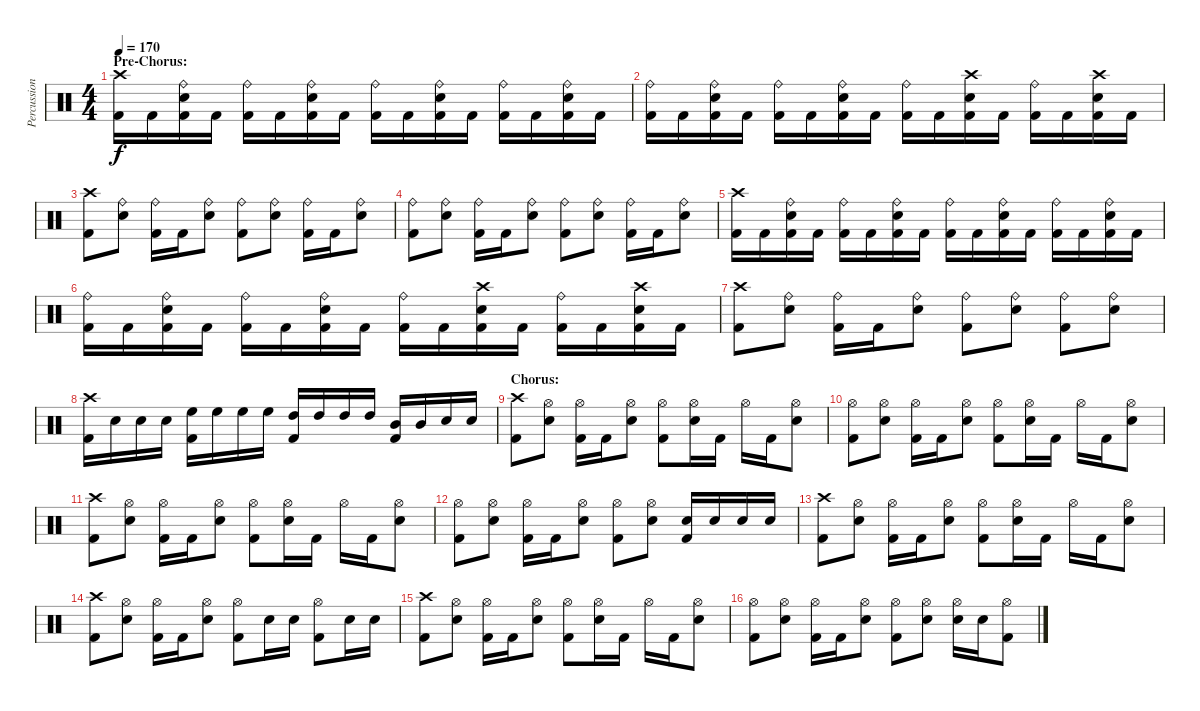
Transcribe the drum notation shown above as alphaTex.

\track ("Percussion" "Percussion") {instrument percussion}
\staff {score}
\articulation defaults
\ts (4 4)
\section ("" "Pre-Chorus:")
\tempo 170
\clef neutral
\ks c
("Crash high (hit)" "Kick (hit) 2").16{dy f} "Kick (hit) 2".16 ("Ride (bell)" "Electric Snare (hit)" "Kick (hit) 2").16 "Kick (hit) 2".16 ("Ride (bell)" "Kick (hit) 2").16 "Kick (hit) 2".16 ("Ride (bell)" "Electric Snare (hit)" "Kick (hit) 2").16 "Kick (hit) 2".16 ("Ride (bell)" "Kick (hit) 2").16 "Kick (hit) 2".16 ("Ride (bell)" "Electric Snare (hit)" "Kick (hit) 2").16 "Kick (hit) 2".16 ("Ride (bell)" "Kick (hit) 2").16 "Kick (hit) 2".16 ("Ride (bell)" "Electric Snare (hit)" "Kick (hit) 2").16 "Kick (hit) 2".16 |
("Ride (bell)" "Kick (hit) 2").16 "Kick (hit) 2".16 ("Ride (bell)" "Electric Snare (hit)" "Kick (hit) 2").16 "Kick (hit) 2".16 ("Ride (bell)" "Kick (hit) 2").16 "Kick (hit) 2".16 ("Ride (bell)" "Electric Snare (hit)" "Kick (hit) 2").16 "Kick (hit) 2".16 ("Ride (bell)" "Kick (hit) 2").16 "Kick (hit) 2".16 ("Crash high (hit)" "Electric Snare (hit)" "Kick (hit) 2").16 "Kick (hit) 2".16 ("Ride (bell)" "Kick (hit) 2").16 "Kick (hit) 2".16 ("Crash high (hit)" "Electric Snare (hit)" "Kick (hit) 2").16 "Kick (hit) 2".16 |
("Crash high (hit)" "Kick (hit) 2").8 ("Ride (bell)" "Electric Snare (hit)").8 ("Ride (bell)" "Kick (hit) 2").16 "Kick (hit) 2".16 ("Ride (bell)" "Electric Snare (hit)").8 ("Ride (bell)" "Kick (hit) 2").8 ("Ride (bell)" "Electric Snare (hit)").8 ("Ride (bell)" "Kick (hit) 2").16 "Kick (hit) 2".16 ("Ride (bell)" "Electric Snare (hit)").8 |
("Ride (bell)" "Kick (hit) 2").8 ("Ride (bell)" "Electric Snare (hit)").8 ("Ride (bell)" "Kick (hit) 2").16 "Kick (hit) 2".16 ("Ride (bell)" "Electric Snare (hit)").8 ("Ride (bell)" "Kick (hit) 2").8 ("Ride (bell)" "Electric Snare (hit)").8 ("Ride (bell)" "Kick (hit) 2").16 "Kick (hit) 2".16 ("Ride (bell)" "Electric Snare (hit)").8 |
("Crash high (hit)" "Kick (hit) 2").16 "Kick (hit) 2".16 ("Ride (bell)" "Electric Snare (hit)" "Kick (hit) 2").16 "Kick (hit) 2".16 ("Ride (bell)" "Kick (hit) 2").16 "Kick (hit) 2".16 ("Ride (bell)" "Electric Snare (hit)" "Kick (hit) 2").16 "Kick (hit) 2".16 ("Ride (bell)" "Kick (hit) 2").16 "Kick (hit) 2".16 ("Ride (bell)" "Electric Snare (hit)" "Kick (hit) 2").16 "Kick (hit) 2".16 ("Ride (bell)" "Kick (hit) 2").16 "Kick (hit) 2".16 ("Ride (bell)" "Electric Snare (hit)" "Kick (hit) 2").16 "Kick (hit) 2".16 |
("Ride (bell)" "Kick (hit) 2").16 "Kick (hit) 2".16 ("Ride (bell)" "Electric Snare (hit)" "Kick (hit) 2").16 "Kick (hit) 2".16 ("Ride (bell)" "Kick (hit) 2").16 "Kick (hit) 2".16 ("Ride (bell)" "Electric Snare (hit)" "Kick (hit) 2").16 "Kick (hit) 2".16 ("Ride (bell)" "Kick (hit) 2").16 "Kick (hit) 2".16 ("Crash high (hit)" "Electric Snare (hit)" "Kick (hit) 2").16 "Kick (hit) 2".16 ("Ride (bell)" "Kick (hit) 2").16 "Kick (hit) 2".16 ("Crash high (hit)" "Electric Snare (hit)" "Kick (hit) 2").16 "Kick (hit) 2".16 |
("Crash high (hit)" "Kick (hit) 2").8 ("Ride (bell)" "Electric Snare (hit)").8 ("Ride (bell)" "Kick (hit) 2").16 "Kick (hit) 2".16 ("Ride (bell)" "Electric Snare (hit)").8 ("Ride (bell)" "Kick (hit) 2").8 ("Ride (bell)" "Electric Snare (hit)").8 ("Ride (bell)" "Kick (hit) 2").8 ("Ride (bell)" "Electric Snare (hit)").8 |
("Crash high (hit)" "Kick (hit) 2").16 "Electric Snare (hit)".16 "Electric Snare (hit)".16 "Electric Snare (hit)".16 ("High Floor Tom (hit)" "Kick (hit) 2").16 "High Floor Tom (hit)".16 "High Floor Tom (hit)".16 "High Floor Tom (hit)".16 ("High Tom (hit)" "Kick (hit) 2").16 "High Tom (hit)".16 "High Tom (hit)".16 "High Tom (hit)".16 ("Mid Tom (hit)" "Kick (hit) 2").16 "Mid Tom (hit)".16 "Electric Snare (hit)".16 "Electric Snare (hit)".16 |
\section ("" "Chorus:")
("Crash high (hit)" "Kick (hit) 2").8 ("Hi-Hat (open)" "Electric Snare (hit)").8 ("Hi-Hat (open)" "Kick (hit) 2").16 "Kick (hit) 2".16 ("Hi-Hat (open)" "Electric Snare (hit)").8 ("Hi-Hat (open)" "Kick (hit) 2").8 ("Hi-Hat (open)" "Electric Snare (hit)").16 "Kick (hit) 2".16 "Hi-Hat (open)".16 "Kick (hit) 2".16 ("Hi-Hat (open)" "Electric Snare (hit)").8 |
("Hi-Hat (open)" "Kick (hit) 2").8 ("Hi-Hat (open)" "Electric Snare (hit)").8 ("Hi-Hat (open)" "Kick (hit) 2").16 "Kick (hit) 2".16 ("Hi-Hat (open)" "Electric Snare (hit)").8 ("Hi-Hat (open)" "Kick (hit) 2").8 ("Hi-Hat (open)" "Electric Snare (hit)").16 "Kick (hit) 2".16 "Hi-Hat (open)".16 "Kick (hit) 2".16 ("Hi-Hat (open)" "Electric Snare (hit)").8 |
("Crash high (hit)" "Kick (hit) 2").8 ("Hi-Hat (open)" "Electric Snare (hit)").8 ("Hi-Hat (open)" "Kick (hit) 2").16 "Kick (hit) 2".16 ("Hi-Hat (open)" "Electric Snare (hit)").8 ("Hi-Hat (open)" "Kick (hit) 2").8 ("Hi-Hat (open)" "Electric Snare (hit)").16 "Kick (hit) 2".16 "Hi-Hat (open)".16 "Kick (hit) 2".16 ("Hi-Hat (open)" "Electric Snare (hit)").8 |
("Hi-Hat (open)" "Kick (hit) 2").8 ("Hi-Hat (open)" "Electric Snare (hit)").8 ("Hi-Hat (open)" "Kick (hit) 2").16 "Kick (hit) 2".16 ("Hi-Hat (open)" "Electric Snare (hit)").8 ("Hi-Hat (open)" "Kick (hit) 2").8 ("Hi-Hat (open)" "Electric Snare (hit)").8 ("Electric Snare (hit)" "Kick (hit) 2").16 "Electric Snare (hit)".16 "Electric Snare (hit)".16 "Electric Snare (hit)".16 |
("Crash high (hit)" "Kick (hit) 2").8 ("Hi-Hat (open)" "Electric Snare (hit)").8 ("Hi-Hat (open)" "Kick (hit) 2").16 "Kick (hit) 2".16 ("Hi-Hat (open)" "Electric Snare (hit)").8 ("Hi-Hat (open)" "Kick (hit) 2").8 ("Hi-Hat (open)" "Electric Snare (hit)").16 "Kick (hit) 2".16 "Hi-Hat (open)".16 "Kick (hit) 2".16 ("Hi-Hat (open)" "Electric Snare (hit)").8 |
("Crash high (hit)" "Kick (hit) 2").8 ("Hi-Hat (open)" "Electric Snare (hit)").8 ("Hi-Hat (open)" "Kick (hit) 2").16 "Kick (hit) 2".16 ("Hi-Hat (open)" "Electric Snare (hit)").8 ("Hi-Hat (open)" "Kick (hit) 2").8 "Electric Snare (hit)".16 "Electric Snare (hit)".16 ("Hi-Hat (open)" "Kick (hit) 2").8 "Electric Snare (hit)".16 "Electric Snare (hit)".16 |
("Crash high (hit)" "Kick (hit) 2").8 ("Hi-Hat (open)" "Electric Snare (hit)").8 ("Hi-Hat (open)" "Kick (hit) 2").16 "Kick (hit) 2".16 ("Hi-Hat (open)" "Electric Snare (hit)").8 ("Hi-Hat (open)" "Kick (hit) 2").8 ("Hi-Hat (open)" "Electric Snare (hit)").16 "Kick (hit) 2".16 "Hi-Hat (open)".16 "Kick (hit) 2".16 ("Hi-Hat (open)" "Electric Snare (hit)").8 |
("Hi-Hat (open)" "Kick (hit) 2").8 ("Hi-Hat (open)" "Electric Snare (hit)").8 ("Hi-Hat (open)" "Kick (hit) 2").16 "Kick (hit) 2".16 ("Hi-Hat (open)" "Electric Snare (hit)").8 ("Hi-Hat (open)" "Kick (hit) 2").8 ("Hi-Hat (open)" "Electric Snare (hit)").8 ("Hi-Hat (open)" "Electric Snare (hit)").16 "Electric Snare (hit)".16 ("Hi-Hat (open)" "Kick (hit) 2").8
